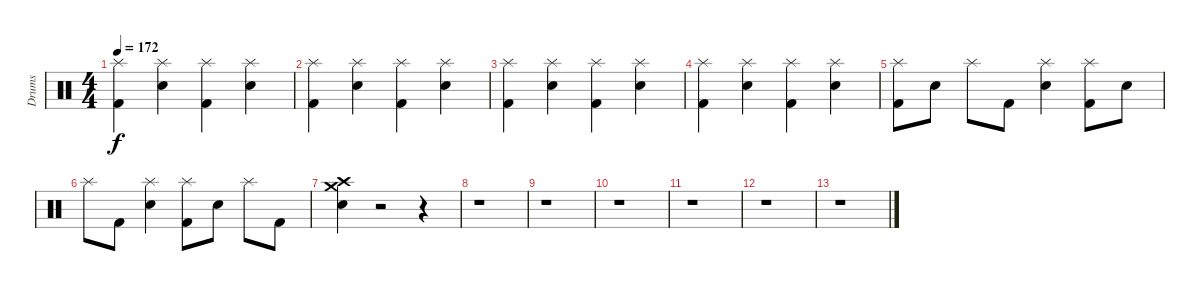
\track ("Drums" "Drums") {instrument percussion}
\staff {score}
\articulation defaults
\ts (4 4)
\tempo 172
\clef neutral
\ks c
("Splash (hit)" "Kick (hit) 2").4{dy f} ("Splash (hit)" "Snare (hit) 2").4 ("Splash (hit)" "Kick (hit) 2").4 ("Splash (hit)" "Snare (hit) 2").4 |
("Splash (hit)" "Kick (hit) 2").4 ("Splash (hit)" "Snare (hit) 2").4 ("Splash (hit)" "Kick (hit) 2").4 ("Splash (hit)" "Snare (hit) 2").4 |
("Kick (hit) 2" "Splash (hit)").4 ("Splash (hit)" "Snare (hit) 2").4 ("Splash (hit)" "Kick (hit) 2").4 ("Splash (hit)" "Snare (hit) 2").4 |
("Splash (hit)" "Kick (hit) 2").4 ("Splash (hit)" "Snare (hit) 2").4 ("Splash (hit)" "Kick (hit) 2").4 ("Splash (hit)" "Snare (hit) 2").4 |
("Splash (hit)" "Kick (hit) 2").8 "Snare (hit) 2".8 "Splash (hit)".8 "Kick (hit) 2".8 ("Splash (hit)" "Snare (hit) 2").4 ("Splash (hit)" "Kick (hit) 2").8 "Snare (hit) 2".8 |
"Splash (hit)".8 "Kick (hit) 2".8 ("Splash (hit)" "Snare (hit) 2").4 ("Splash (hit)" "Kick (hit) 2").8 "Snare (hit) 2".8 "Splash (hit)".8 "Kick (hit) 2".8 |
("Crash high (hit)" "Crash medium (hit)" "Snare (hit) 2").4 r.2 r.4 |
r.1 |
r.1 |
r.1 |
r.1 |
r.1 |
r.1
